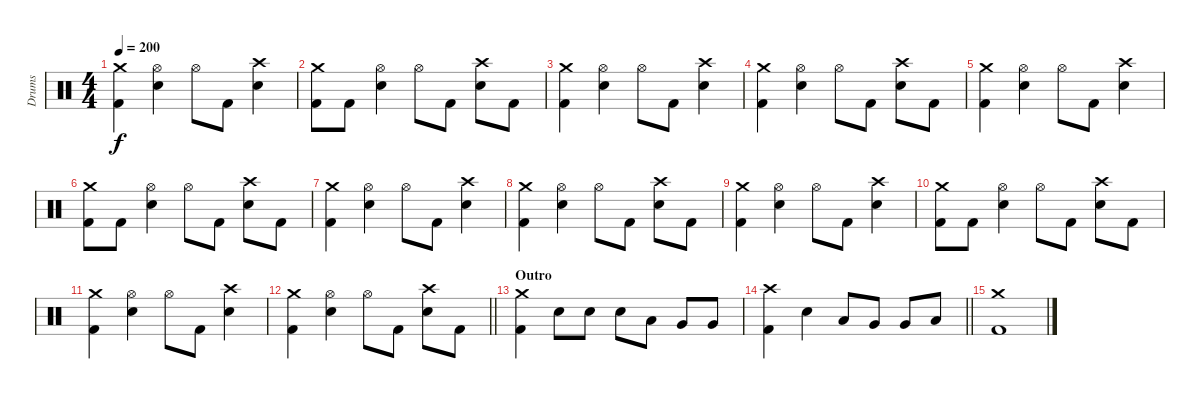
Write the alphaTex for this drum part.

\track ("Drums" "Drums") {instrument percussion}
\staff {score}
\articulation defaults
\ts (4 4)
\tempo 200
\clef neutral
\ks c
("Crash medium (hit)" "Kick (hit) 2").4{dy f} ("Hi-Hat (open)" "Electric Snare (hit)").4 "Hi-Hat (open)".8 "Kick (hit) 2".8 ("Crash high (hit)" "Electric Snare (hit)").4 |
("Crash medium (hit)" "Kick (hit) 2").8 "Kick (hit) 2".8 ("Hi-Hat (open)" "Electric Snare (hit)").4 "Hi-Hat (open)".8 "Kick (hit) 2".8 ("Crash high (hit)" "Electric Snare (hit)").8 "Kick (hit) 2".8 |
("Crash medium (hit)" "Kick (hit) 2").4 ("Hi-Hat (open)" "Electric Snare (hit)").4 "Hi-Hat (open)".8 "Kick (hit) 2".8 ("Crash high (hit)" "Electric Snare (hit)").4 |
("Crash medium (hit)" "Kick (hit) 2").4 ("Hi-Hat (open)" "Electric Snare (hit)").4 "Hi-Hat (open)".8 "Kick (hit) 2".8 ("Crash high (hit)" "Electric Snare (hit)").8 "Kick (hit) 2".8 |
("Crash medium (hit)" "Kick (hit) 2").4 ("Hi-Hat (open)" "Electric Snare (hit)").4 "Hi-Hat (open)".8 "Kick (hit) 2".8 ("Crash high (hit)" "Electric Snare (hit)").4 |
("Crash medium (hit)" "Kick (hit) 2").8 "Kick (hit) 2".8 ("Hi-Hat (open)" "Electric Snare (hit)").4 "Hi-Hat (open)".8 "Kick (hit) 2".8 ("Crash high (hit)" "Electric Snare (hit)").8 "Kick (hit) 2".8 |
("Crash medium (hit)" "Kick (hit) 2").4 ("Hi-Hat (open)" "Electric Snare (hit)").4 "Hi-Hat (open)".8 "Kick (hit) 2".8 ("Crash high (hit)" "Electric Snare (hit)").4 |
("Crash medium (hit)" "Kick (hit) 2").4 ("Hi-Hat (open)" "Electric Snare (hit)").4 "Hi-Hat (open)".8 "Kick (hit) 2".8 ("Crash high (hit)" "Electric Snare (hit)").8 "Kick (hit) 2".8 |
("Crash medium (hit)" "Kick (hit) 2").4 ("Hi-Hat (open)" "Electric Snare (hit)").4 "Hi-Hat (open)".8 "Kick (hit) 2".8 ("Crash high (hit)" "Electric Snare (hit)").4 |
("Crash medium (hit)" "Kick (hit) 2").8 "Kick (hit) 2".8 ("Hi-Hat (open)" "Electric Snare (hit)").4 "Hi-Hat (open)".8 "Kick (hit) 2".8 ("Crash high (hit)" "Electric Snare (hit)").8 "Kick (hit) 2".8 |
("Crash medium (hit)" "Kick (hit) 2").4 ("Hi-Hat (open)" "Electric Snare (hit)").4 "Hi-Hat (open)".8 "Kick (hit) 2".8 ("Crash high (hit)" "Electric Snare (hit)").4 |
\barLineRight lightlight
("Crash medium (hit)" "Kick (hit) 2").4 ("Hi-Hat (open)" "Electric Snare (hit)").4 "Hi-Hat (open)".8 "Kick (hit) 2".8 ("Crash high (hit)" "Electric Snare (hit)").8 "Kick (hit) 2".8 |
\section ("" "Outro")
("Crash medium (hit)" "Kick (hit) 2").4 "Electric Snare (hit)".8 "Electric Snare (hit)".8 "Electric Snare (hit)".8 "Low Tom (hit)".8 "Very Low Tom (hit)".8 "Very Low Tom (hit)".8 |
\barLineRight lightlight
("Crash high (hit)" "Kick (hit) 2").4 "Electric Snare (hit)".4 "Low Tom (hit)".8 "Very Low Tom (hit)".8 "Very Low Tom (hit)".8 "Low Floor Tom (hit)".8 |
("Crash medium (hit)" "Kick (hit) 2").1
